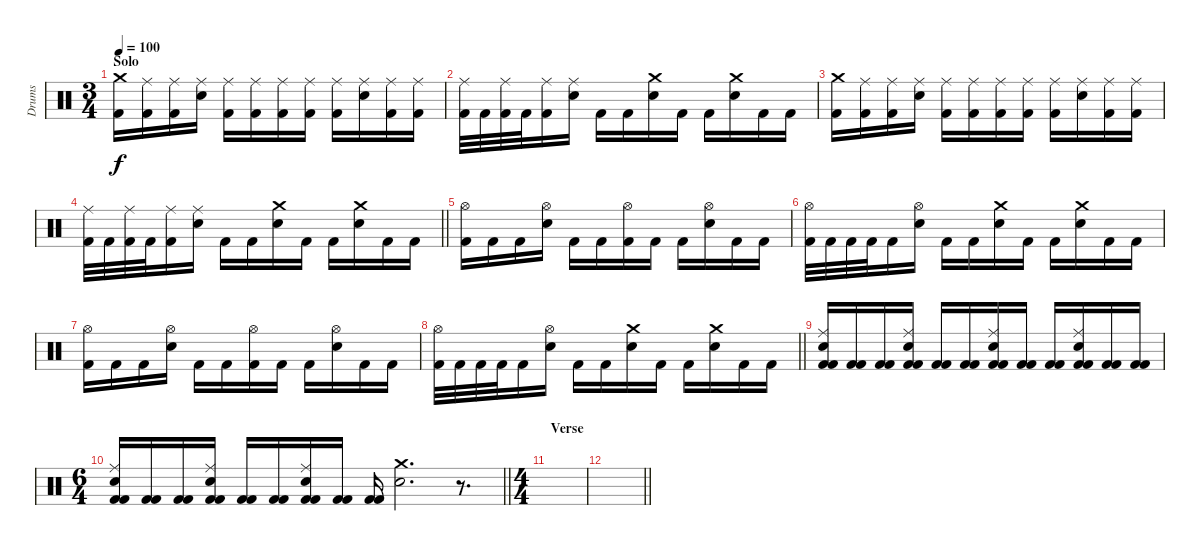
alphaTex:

\track ("Drums" "Drums") {instrument percussion}
\staff {score}
\articulation defaults
\ts (3 4)
\section ("" "Solo")
\tempo 100
\clef neutral
\ks c
("Crash medium (hit)" "Kick (hit) 2").16{dy f} ("Ride (middle)" "Kick (hit) 2").16 ("Ride (middle)" "Kick (hit) 2").16 ("Ride (middle)" "Electric Snare (hit)").16 ("Ride (middle)" "Kick (hit) 2").16 ("Ride (middle)" "Kick (hit) 2").16 ("Ride (middle)" "Kick (hit) 2").16 ("Ride (middle)" "Kick (hit) 2").16 ("Ride (middle)" "Kick (hit) 2").16 ("Ride (middle)" "Electric Snare (hit)").16 ("Ride (middle)" "Kick (hit) 2").16 ("Ride (middle)" "Kick (hit) 2").16 |
("Ride (middle)" "Kick (hit) 2").32 "Kick (hit) 2".32 ("Ride (middle)" "Kick (hit) 2").32 "Kick (hit) 2".32 ("Ride (middle)" "Kick (hit) 2").16 ("Ride (middle)" "Electric Snare (hit)").16 "Kick (hit) 2".16 "Kick (hit) 2".16 ("Crash medium (hit)" "Electric Snare (hit)").16 "Kick (hit) 2".16 "Kick (hit) 2".16 ("Crash medium (hit)" "Electric Snare (hit)").16 "Kick (hit) 2".16 "Kick (hit) 2".16 |
("Crash medium (hit)" "Kick (hit) 2").16 ("Ride (middle)" "Kick (hit) 2").16 ("Ride (middle)" "Kick (hit) 2").16 ("Ride (middle)" "Electric Snare (hit)").16 ("Ride (middle)" "Kick (hit) 2").16 ("Ride (middle)" "Kick (hit) 2").16 ("Ride (middle)" "Kick (hit) 2").16 ("Ride (middle)" "Kick (hit) 2").16 ("Ride (middle)" "Kick (hit) 2").16 ("Ride (middle)" "Electric Snare (hit)").16 ("Ride (middle)" "Kick (hit) 2").16 ("Ride (middle)" "Kick (hit) 2").16 |
\barLineRight lightlight
("Ride (middle)" "Kick (hit) 2").32 "Kick (hit) 2".32 ("Ride (middle)" "Kick (hit) 2").32 "Kick (hit) 2".32 ("Ride (middle)" "Kick (hit) 2").16 ("Ride (middle)" "Electric Snare (hit)").16 "Kick (hit) 2".16 "Kick (hit) 2".16 ("Crash medium (hit)" "Electric Snare (hit)").16 "Kick (hit) 2".16 "Kick (hit) 2".16 ("Crash medium (hit)" "Electric Snare (hit)").16 "Kick (hit) 2".16 "Kick (hit) 2".16 |
("Hi-Hat (open)" "Kick (hit) 2").16 "Kick (hit) 2".16 "Kick (hit) 2".16 ("Hi-Hat (open)" "Electric Snare (hit)").16 "Kick (hit) 2".16 "Kick (hit) 2".16 ("Hi-Hat (open)" "Kick (hit) 2").16 "Kick (hit) 2".16 "Kick (hit) 2".16 ("Hi-Hat (open)" "Electric Snare (hit)").16 "Kick (hit) 2".16 "Kick (hit) 2".16 |
("Hi-Hat (open)" "Kick (hit) 2").32 "Kick (hit) 2".32 "Kick (hit) 2".32 "Kick (hit) 2".32 "Kick (hit) 2".16 ("Hi-Hat (open)" "Electric Snare (hit)").16 "Kick (hit) 2".16 "Kick (hit) 2".16 ("Crash medium (hit)" "Electric Snare (hit)").16 "Kick (hit) 2".16 "Kick (hit) 2".16 ("Crash medium (hit)" "Electric Snare (hit)").16 "Kick (hit) 2".16 "Kick (hit) 2".16 |
("Hi-Hat (open)" "Kick (hit) 2").16 "Kick (hit) 2".16 "Kick (hit) 2".16 ("Hi-Hat (open)" "Electric Snare (hit)").16 "Kick (hit) 2".16 "Kick (hit) 2".16 ("Hi-Hat (open)" "Kick (hit) 2").16 "Kick (hit) 2".16 "Kick (hit) 2".16 ("Hi-Hat (open)" "Electric Snare (hit)").16 "Kick (hit) 2".16 "Kick (hit) 2".16 |
\barLineRight lightlight
("Hi-Hat (open)" "Kick (hit) 2").32 "Kick (hit) 2".32 "Kick (hit) 2".32 "Kick (hit) 2".32 "Kick (hit) 2".16 ("Hi-Hat (open)" "Electric Snare (hit)").16 "Kick (hit) 2".16 "Kick (hit) 2".16 ("Crash medium (hit)" "Electric Snare (hit)").16 "Kick (hit) 2".16 "Kick (hit) 2".16 ("Crash medium (hit)" "Electric Snare (hit)").16 "Kick (hit) 2".16 "Kick (hit) 2".16 |
("Ride (middle)" "Electric Snare (hit)" "Kick (hit) 2" "Kick (hit) 2").16 ("Kick (hit) 2" "Kick (hit) 2").16 ("Kick (hit) 2" "Kick (hit) 2").16 ("Ride (middle)" "Electric Snare (hit)" "Kick (hit) 2" "Kick (hit) 2").16 ("Kick (hit) 2" "Kick (hit) 2").16 ("Kick (hit) 2" "Kick (hit) 2").16 ("Ride (middle)" "Electric Snare (hit)" "Kick (hit) 2" "Kick (hit) 2").16 ("Kick (hit) 2" "Kick (hit) 2").16 ("Kick (hit) 2" "Kick (hit) 2").16 ("Ride (middle)" "Electric Snare (hit)" "Kick (hit) 2" "Kick (hit) 2").16 ("Kick (hit) 2" "Kick (hit) 2").16 ("Kick (hit) 2" "Kick (hit) 2").16 |
\ts (6 4)
\barLineRight lightlight
("Ride (middle)" "Electric Snare (hit)" "Kick (hit) 2" "Kick (hit) 2").16 ("Kick (hit) 2" "Kick (hit) 2").16 ("Kick (hit) 2" "Kick (hit) 2").16 ("Ride (middle)" "Electric Snare (hit)" "Kick (hit) 2" "Kick (hit) 2").16 ("Kick (hit) 2" "Kick (hit) 2").16 ("Kick (hit) 2" "Kick (hit) 2").16 ("Ride (middle)" "Electric Snare (hit)" "Kick (hit) 2" "Kick (hit) 2").16 ("Kick (hit) 2" "Kick (hit) 2").16 ("Kick (hit) 2" "Kick (hit) 2").16 ("Crash medium (hit)" "Electric Snare (hit)").2{d} r.8{d} |
\ts (4 4)
\section ("" "Verse")
|
\barLineRight lightlight
